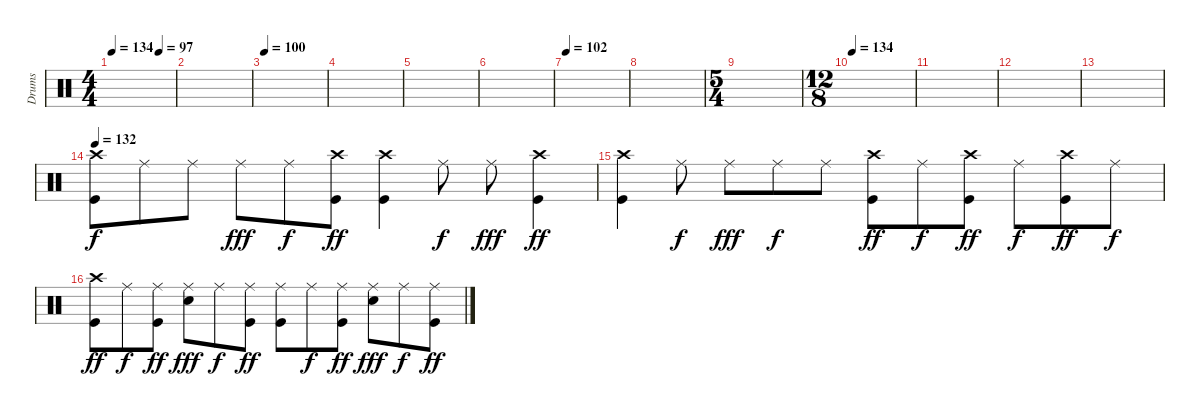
\track ("Drums" "Drums") {instrument percussion}
\staff {score}
\articulation defaults
\ts (4 4)
\tempo 134
\tempo (97 0.75)
\tempo 134
\clef neutral
\ks c
|
|
\tempo 100
|
|
|
|
\tempo 102
|
|
\ts (5 4)
|
\ts (12 8)
\tempo 134
|
|
|
|
\tempo 132
("Crash high (hit)" "Kick (hit)").8 "Ride (middle)".8{dy f} "Ride (middle)".8 "Ride (middle)".8{dy fff} "Ride (middle)".8{dy f} ("Crash high (hit)" "Kick (hit)").8{dy ff} ("Crash high (hit)" "Kick (hit)").4 "Ride (middle)".8{dy f} "Ride (middle)".8{dy fff} ("Crash high (hit)" "Kick (hit)").4{dy ff} |
("Crash high (hit)" "Kick (hit)").4 "Ride (middle)".8{dy f} "Ride (middle)".8{dy fff} "Ride (middle)".8{dy f} "Ride (middle)".8 ("Crash high (hit)" "Kick (hit)").8{dy ff} "Ride (middle)".8{dy f} ("Crash high (hit)" "Kick (hit)").8{dy ff} "Ride (middle)".8{dy f} ("Crash high (hit)" "Kick (hit)").8{dy ff} "Ride (middle)".8{dy f} |
("Crash high (hit)" "Kick (hit)").8{dy ff} "Ride (middle)".8{dy f} ("Ride (middle)" "Kick (hit)").8{dy ff} ("Ride (middle)" "Snare (hit) 2").8{dy fff} "Ride (middle)".8{dy f} ("Ride (middle)" "Kick (hit)").8{dy ff} ("Ride (middle)" "Kick (hit)").8 "Ride (middle)".8{dy f} ("Ride (middle)" "Kick (hit)").8{dy ff} ("Ride (middle)" "Snare (hit) 2").8{dy fff} "Ride (middle)".8{dy f} ("Ride (middle)" "Kick (hit)").8{dy ff}
